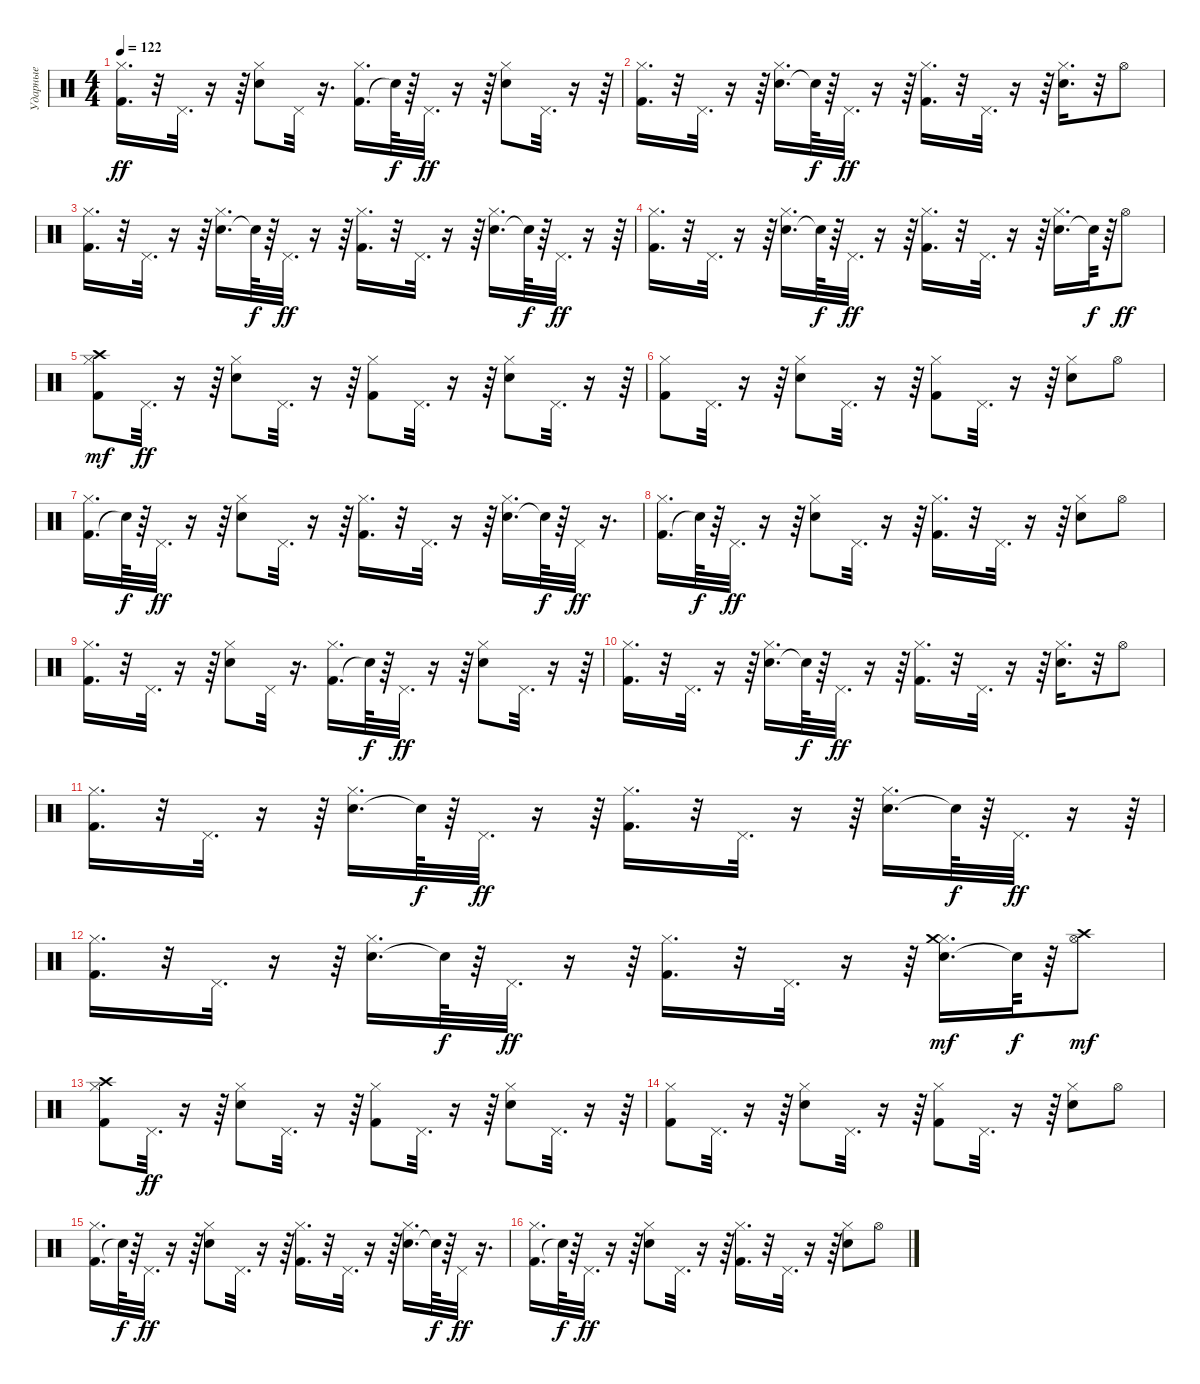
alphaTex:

\track ("Ударные" "Ударные") {instrument percussion}
\staff {score}
\articulation defaults
\ts (4 4)
\tempo 122
\clef neutral
\ks c
("Kick (hit) 2" "Hi-Hat (closed)").16{d dy ff} r.32 "Pedal Hi-Hat (hit)".32{d} r.16 r.64 ("Snare (hit) 2" "Hi-Hat (closed)").8 "Pedal Hi-Hat (hit)".32 r.16{d} ("Kick (hit) 2" "Hi-Hat (closed)").16{d} "Snare (hit)"{t}.64{dy f} r.64 "Pedal Hi-Hat (hit)".32{d dy ff} r.16 r.64 ("Snare (hit) 2" "Hi-Hat (closed)").8 "Pedal Hi-Hat (hit)".32{d} r.16 r.64 |
("Kick (hit) 2" "Hi-Hat (closed)").16{d} r.32 "Pedal Hi-Hat (hit)".32{d} r.16 r.64 ("Snare (hit) 2" "Hi-Hat (closed)").16{d} "Snare (hit)"{t}.64{dy f} r.64 "Pedal Hi-Hat (hit)".32{d dy ff} r.16 r.64 ("Kick (hit) 2" "Hi-Hat (closed)").16{d} r.32 "Pedal Hi-Hat (hit)".32{d} r.16 r.64 ("Snare (hit) 2" "Hi-Hat (closed)").16{d} r.32 "Hi-Hat (open)".8 |
("Kick (hit) 2" "Hi-Hat (closed)").16{d} r.32 "Pedal Hi-Hat (hit)".32{d} r.16 r.64 ("Snare (hit) 2" "Hi-Hat (closed)").16{d} "Snare (hit)"{t}.64{dy f} r.64 "Pedal Hi-Hat (hit)".32{d dy ff} r.16 r.64 ("Kick (hit) 2" "Hi-Hat (closed)").16{d} r.32 "Pedal Hi-Hat (hit)".32{d} r.16 r.64 ("Snare (hit) 2" "Hi-Hat (closed)").16{d} "Snare (hit)"{t}.64{dy f} r.64 "Pedal Hi-Hat (hit)".32{d dy ff} r.16 r.64 |
("Kick (hit) 2" "Hi-Hat (closed)").16{d} r.32 "Pedal Hi-Hat (hit)".32{d} r.16 r.64 ("Snare (hit) 2" "Hi-Hat (closed)").16{d} "Snare (hit)"{t}.64{dy f} r.64 "Pedal Hi-Hat (hit)".32{d dy ff} r.16 r.64 ("Kick (hit) 2" "Hi-Hat (closed)").16{d} r.32 "Pedal Hi-Hat (hit)".32{d} r.16 r.64 ("Snare (hit) 2" "Hi-Hat (closed)").16{d} "Snare (hit)"{t}.64{dy f} r.64 "Hi-Hat (open)".8{dy ff} |
("Kick (hit) 2" "Hi-Hat (closed)" "Crash high (hit)").8{dy mf} "Pedal Hi-Hat (hit)".32{d dy ff} r.16 r.64 ("Snare (hit) 2" "Hi-Hat (closed)").8 "Pedal Hi-Hat (hit)".32{d} r.16 r.64 ("Kick (hit) 2" "Hi-Hat (closed)").8 "Pedal Hi-Hat (hit)".32{d} r.16 r.64 ("Snare (hit) 2" "Hi-Hat (closed)").8 "Pedal Hi-Hat (hit)".32{d} r.16 r.64 |
("Kick (hit) 2" "Hi-Hat (closed)").8 "Pedal Hi-Hat (hit)".32{d} r.16 r.64 ("Snare (hit) 2" "Hi-Hat (closed)").8 "Pedal Hi-Hat (hit)".32{d} r.16 r.64 ("Kick (hit) 2" "Hi-Hat (closed)").8 "Pedal Hi-Hat (hit)".32{d} r.16 r.64 ("Snare (hit) 2" "Hi-Hat (closed)").8 "Hi-Hat (open)".8 |
("Kick (hit) 2" "Hi-Hat (closed)").16{d} "Snare (hit)"{t}.64{dy f} r.64 "Pedal Hi-Hat (hit)".32{d dy ff} r.16 r.64 ("Snare (hit) 2" "Hi-Hat (closed)").8 "Pedal Hi-Hat (hit)".32{d} r.16 r.64 ("Kick (hit) 2" "Hi-Hat (closed)").16{d} r.32 "Pedal Hi-Hat (hit)".32{d} r.16 r.64 ("Snare (hit) 2" "Hi-Hat (closed)").16{d} "Snare (hit)"{t}.64{dy f} r.64 "Pedal Hi-Hat (hit)".32{dy ff} r.16{d} |
("Kick (hit) 2" "Hi-Hat (closed)").16{d} "Snare (hit)"{t}.64{dy f} r.64 "Pedal Hi-Hat (hit)".32{d dy ff} r.16 r.64 ("Snare (hit) 2" "Hi-Hat (closed)").8 "Pedal Hi-Hat (hit)".32{d} r.16 r.64 ("Kick (hit) 2" "Hi-Hat (closed)").16{d} r.32 "Pedal Hi-Hat (hit)".32{d} r.16 r.64 ("Snare (hit) 2" "Hi-Hat (closed)").8 "Hi-Hat (open)".8 |
("Kick (hit) 2" "Hi-Hat (closed)").16{d} r.32 "Pedal Hi-Hat (hit)".32{d} r.16 r.64 ("Snare (hit) 2" "Hi-Hat (closed)").8 "Pedal Hi-Hat (hit)".32 r.16{d} ("Kick (hit) 2" "Hi-Hat (closed)").16{d} "Snare (hit)"{t}.64{dy f} r.64 "Pedal Hi-Hat (hit)".32{d dy ff} r.16 r.64 ("Snare (hit) 2" "Hi-Hat (closed)").8 "Pedal Hi-Hat (hit)".32{d} r.16 r.64 |
("Kick (hit) 2" "Hi-Hat (closed)").16{d} r.32 "Pedal Hi-Hat (hit)".32{d} r.16 r.64 ("Snare (hit) 2" "Hi-Hat (closed)").16{d} "Snare (hit)"{t}.64{dy f} r.64 "Pedal Hi-Hat (hit)".32{d dy ff} r.16 r.64 ("Kick (hit) 2" "Hi-Hat (closed)").16{d} r.32 "Pedal Hi-Hat (hit)".32{d} r.16 r.64 ("Snare (hit) 2" "Hi-Hat (closed)").16{d} r.32 "Hi-Hat (open)".8 |
("Kick (hit) 2" "Hi-Hat (closed)").16{d} r.32 "Pedal Hi-Hat (hit)".32{d} r.16 r.64 ("Snare (hit) 2" "Hi-Hat (closed)").16{d} "Snare (hit)"{t}.64{dy f} r.64 "Pedal Hi-Hat (hit)".32{d dy ff} r.16 r.64 ("Kick (hit) 2" "Hi-Hat (closed)").16{d} r.32 "Pedal Hi-Hat (hit)".32{d} r.16 r.64 ("Snare (hit) 2" "Hi-Hat (closed)").16{d} "Snare (hit)"{t}.64{dy f} r.64 "Pedal Hi-Hat (hit)".32{d dy ff} r.16 r.64 |
("Kick (hit) 2" "Hi-Hat (closed)").16{d} r.32 "Pedal Hi-Hat (hit)".32{d} r.16 r.64 ("Snare (hit) 2" "Hi-Hat (closed)").16{d} "Snare (hit)"{t}.64{dy f} r.64 "Pedal Hi-Hat (hit)".32{d dy ff} r.16 r.64 ("Kick (hit) 2" "Hi-Hat (closed)").16{d} r.32 "Pedal Hi-Hat (hit)".32{d} r.16 r.64 ("Snare (hit) 2" "Hi-Hat (closed)" "Crash medium (hit)").16{d dy mf} "Snare (hit)"{t}.64{dy f} r.64 ("Hi-Hat (open)" "Crash high (hit)").8{dy mf} |
("Kick (hit) 2" "Hi-Hat (closed)" "Crash high (hit)").8 "Pedal Hi-Hat (hit)".32{d dy ff} r.16 r.64 ("Snare (hit) 2" "Hi-Hat (closed)").8 "Pedal Hi-Hat (hit)".32{d} r.16 r.64 ("Kick (hit) 2" "Hi-Hat (closed)").8 "Pedal Hi-Hat (hit)".32{d} r.16 r.64 ("Snare (hit) 2" "Hi-Hat (closed)").8 "Pedal Hi-Hat (hit)".32{d} r.16 r.64 |
("Kick (hit) 2" "Hi-Hat (closed)").8 "Pedal Hi-Hat (hit)".32{d} r.16 r.64 ("Snare (hit) 2" "Hi-Hat (closed)").8 "Pedal Hi-Hat (hit)".32{d} r.16 r.64 ("Kick (hit) 2" "Hi-Hat (closed)").8 "Pedal Hi-Hat (hit)".32{d} r.16 r.64 ("Snare (hit) 2" "Hi-Hat (closed)").8 "Hi-Hat (open)".8 |
("Kick (hit) 2" "Hi-Hat (closed)").16{d} "Snare (hit)"{t}.64{dy f} r.64 "Pedal Hi-Hat (hit)".32{d dy ff} r.16 r.64 ("Snare (hit) 2" "Hi-Hat (closed)").8 "Pedal Hi-Hat (hit)".32{d} r.16 r.64 ("Kick (hit) 2" "Hi-Hat (closed)").16{d} r.32 "Pedal Hi-Hat (hit)".32{d} r.16 r.64 ("Snare (hit) 2" "Hi-Hat (closed)").16{d} "Snare (hit)"{t}.64{dy f} r.64 "Pedal Hi-Hat (hit)".32{dy ff} r.16{d} |
("Kick (hit) 2" "Hi-Hat (closed)").16{d} "Snare (hit)"{t}.64{dy f} r.64 "Pedal Hi-Hat (hit)".32{d dy ff} r.16 r.64 ("Snare (hit) 2" "Hi-Hat (closed)").8 "Pedal Hi-Hat (hit)".32{d} r.16 r.64 ("Kick (hit) 2" "Hi-Hat (closed)").16{d} r.32 "Pedal Hi-Hat (hit)".32{d} r.16 r.64 ("Snare (hit) 2" "Hi-Hat (closed)").8 "Hi-Hat (open)".8
